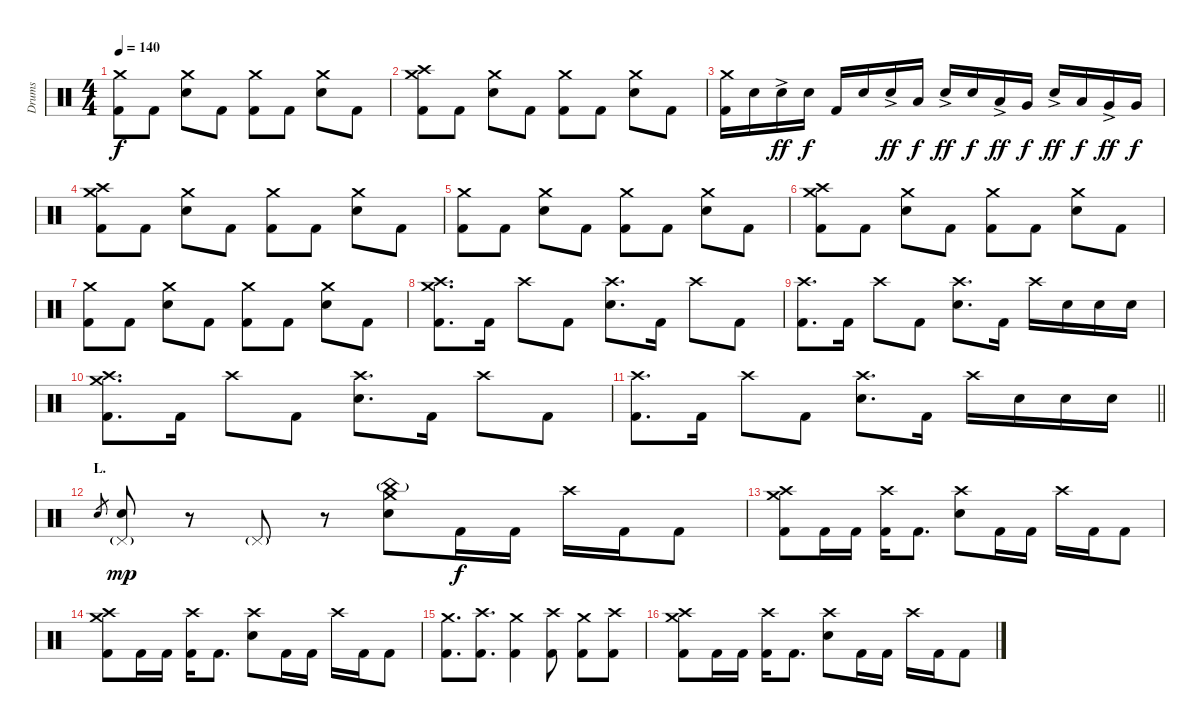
\track ("Drums" "Drums") {instrument percussion}
\staff {score}
\articulation defaults
\ts (4 4)
\tempo 140
\clef neutral
\ks c
("Crash medium (hit)" "Kick (hit) 2").8{dy f} "Kick (hit) 2".8 ("Crash medium (hit)" "Electric Snare (hit)").8 "Kick (hit) 2".8 ("Crash medium (hit)" "Kick (hit) 2").8 "Kick (hit) 2".8 ("Crash medium (hit)" "Electric Snare (hit)").8 "Kick (hit) 2".8 |
("Crash medium (hit)" "Crash high (hit)" "Kick (hit) 2").8 "Kick (hit) 2".8 ("Crash medium (hit)" "Electric Snare (hit)").8 "Kick (hit) 2".8 ("Crash medium (hit)" "Kick (hit) 2").8 "Kick (hit) 2".8 ("Crash medium (hit)" "Electric Snare (hit)").8 "Kick (hit) 2".8 |
("Crash medium (hit)" "Kick (hit) 2").16 "Electric Snare (hit)".16 "Electric Snare (hit)"{ac}.16{dy ff} "Electric Snare (hit)".16{dy f} "Kick (hit) 2".16 "Electric Snare (hit)".16 "Electric Snare (hit)"{ac}.16{dy ff} "Low Tom (hit)".16{dy f} "Electric Snare (hit)"{ac}.16{dy ff} "Electric Snare (hit)".16{dy f} "Low Tom (hit)"{ac}.16{dy ff} "Very Low Tom (hit)".16{dy f} "Electric Snare (hit)"{ac}.16{dy ff} "Low Tom (hit)".16{dy f} "Very Low Tom (hit)"{ac}.16{dy ff} "Very Low Tom (hit)".16{dy f} |
("Crash medium (hit)" "Crash high (hit)" "Kick (hit) 2").8 "Kick (hit) 2".8 ("Crash medium (hit)" "Electric Snare (hit)").8 "Kick (hit) 2".8 ("Crash medium (hit)" "Kick (hit) 2").8 "Kick (hit) 2".8 ("Crash medium (hit)" "Electric Snare (hit)").8 "Kick (hit) 2".8 |
("Crash medium (hit)" "Kick (hit) 2").8 "Kick (hit) 2".8 ("Crash medium (hit)" "Electric Snare (hit)").8 "Kick (hit) 2".8 ("Crash medium (hit)" "Kick (hit) 2").8 "Kick (hit) 2".8 ("Crash medium (hit)" "Electric Snare (hit)").8 "Kick (hit) 2".8 |
("Crash medium (hit)" "Crash high (hit)" "Kick (hit) 2").8 "Kick (hit) 2".8 ("Crash medium (hit)" "Electric Snare (hit)").8 "Kick (hit) 2".8 ("Crash medium (hit)" "Kick (hit) 2").8 "Kick (hit) 2".8 ("Crash medium (hit)" "Electric Snare (hit)").8 "Kick (hit) 2".8 |
("Crash medium (hit)" "Kick (hit) 2").8 "Kick (hit) 2".8 ("Crash medium (hit)" "Electric Snare (hit)").8 "Kick (hit) 2".8 ("Crash medium (hit)" "Kick (hit) 2").8 "Kick (hit) 2".8 ("Crash medium (hit)" "Electric Snare (hit)").8 "Kick (hit) 2".8 |
("Crash medium (hit)" "Crash high (hit)" "Kick (hit) 2").8{d} "Kick (hit) 2".16 "Crash high (hit)".8 "Kick (hit) 2".8 ("Crash high (hit)" "Electric Snare (hit)").8{d} "Kick (hit) 2".16 "Crash high (hit)".8 "Kick (hit) 2".8 |
("Crash high (hit)" "Kick (hit) 2").8{d} "Kick (hit) 2".16 "Crash high (hit)".8 "Kick (hit) 2".8 ("Crash high (hit)" "Electric Snare (hit)").8{d} "Kick (hit) 2".16 "Crash high (hit)".16 "Electric Snare (hit)".16 "Electric Snare (hit)".16 "Electric Snare (hit)".16 |
("Crash medium (hit)" "Crash high (hit)" "Kick (hit) 2").8{d} "Kick (hit) 2".16 "Crash high (hit)".8 "Kick (hit) 2".8 ("Crash high (hit)" "Electric Snare (hit)").8{d} "Kick (hit) 2".16 "Crash high (hit)".8 "Kick (hit) 2".8 |
\barLineRight lightlight
("Crash high (hit)" "Kick (hit) 2").8{d} "Kick (hit) 2".16 "Crash high (hit)".8 "Kick (hit) 2".8 ("Crash high (hit)" "Electric Snare (hit)").8{d} "Kick (hit) 2".16 "Crash high (hit)".16 "Electric Snare (hit)".16 "Electric Snare (hit)".16 "Electric Snare (hit)".16 |
\section ("" "L.")
"Electric Snare (hit)".8{gr} ("Pedal Hi-Hat (hit)"{g} "Electric Snare (hit)").8{dy mp} r.8 "Pedal Hi-Hat (hit)"{g}.8 r.8 ("Crash medium (hit)" "China (hit)"{g} "Electric Snare (hit)").8 "Kick (hit) 2".16{dy f} "Kick (hit) 2".16 "Crash high (hit)".16 "Kick (hit) 2".16 "Kick (hit) 2".8 |
("Crash medium (hit)" "Crash high (hit)" "Kick (hit) 2").8 "Kick (hit) 2".16 "Kick (hit) 2".16 ("Crash high (hit)" "Kick (hit) 2").16 "Kick (hit) 2".8{d} ("Crash high (hit)" "Electric Snare (hit)").8 "Kick (hit) 2".16 "Kick (hit) 2".16 "Crash high (hit)".16 "Kick (hit) 2".16 "Kick (hit) 2".8 |
("Crash medium (hit)" "Crash high (hit)" "Kick (hit) 2").8 "Kick (hit) 2".16 "Kick (hit) 2".16 ("Crash high (hit)" "Kick (hit) 2").16 "Kick (hit) 2".8{d} ("Crash high (hit)" "Electric Snare (hit)").8 "Kick (hit) 2".16 "Kick (hit) 2".16 "Crash high (hit)".16 "Kick (hit) 2".16 "Kick (hit) 2".8 |
("Crash medium (hit)" "Kick (hit) 2").8{d} ("Crash high (hit)" "Kick (hit) 2").8{d} ("Crash medium (hit)" "Kick (hit) 2").4 ("Crash high (hit)" "Kick (hit) 2").8 ("Crash medium (hit)" "Kick (hit) 2").8 ("Crash high (hit)" "Kick (hit) 2").8 |
("Crash medium (hit)" "Crash high (hit)" "Kick (hit) 2").8 "Kick (hit) 2".16 "Kick (hit) 2".16 ("Crash high (hit)" "Kick (hit) 2").16 "Kick (hit) 2".8{d} ("Crash high (hit)" "Electric Snare (hit)").8 "Kick (hit) 2".16 "Kick (hit) 2".16 "Crash high (hit)".16 "Kick (hit) 2".16 "Kick (hit) 2".8
